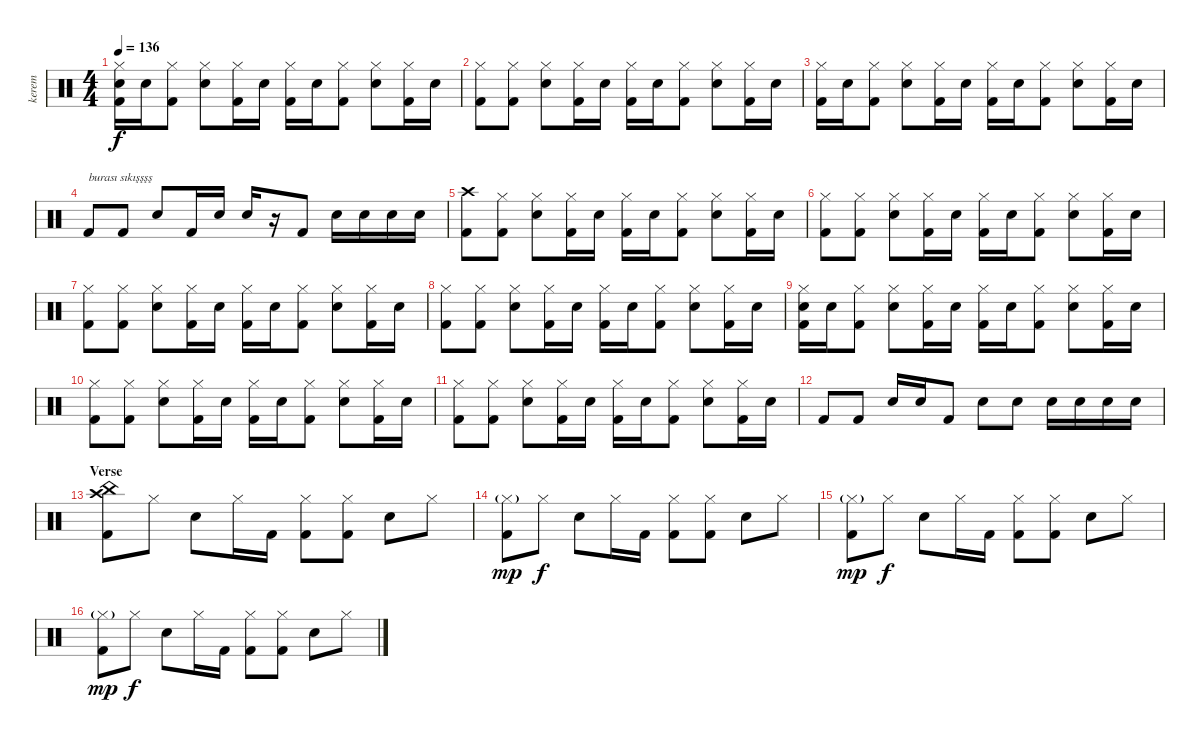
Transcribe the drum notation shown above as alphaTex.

\track ("kerem" "kerem") {instrument percussion}
\staff {score}
\articulation defaults
\ts (4 4)
\tempo 136
\clef neutral
\ks c
("Kick (hit) 2" "Electric Snare (hit)" "Hi-Hat (closed)").16{dy f} "Electric Snare (hit)".16 ("Kick (hit) 2" "Hi-Hat (closed)").8 ("Electric Snare (hit)" "Hi-Hat (closed)").8 ("Kick (hit) 2" "Hi-Hat (closed)").16 "Electric Snare (hit)".16 ("Kick (hit) 2" "Hi-Hat (closed)").16 "Electric Snare (hit)".16 ("Kick (hit) 2" "Hi-Hat (closed)").8 ("Electric Snare (hit)" "Hi-Hat (closed)").8 ("Kick (hit) 2" "Hi-Hat (closed)").16 "Electric Snare (hit)".16 |
("Kick (hit) 2" "Hi-Hat (closed)").8 ("Kick (hit) 2" "Hi-Hat (closed)").8 ("Electric Snare (hit)" "Hi-Hat (closed)").8 ("Kick (hit) 2" "Hi-Hat (closed)").16 "Electric Snare (hit)".16 ("Kick (hit) 2" "Hi-Hat (closed)").16 "Electric Snare (hit)".16 ("Kick (hit) 2" "Hi-Hat (closed)").8 ("Electric Snare (hit)" "Hi-Hat (closed)").8 ("Kick (hit) 2" "Hi-Hat (closed)").16 "Electric Snare (hit)".16 |
("Kick (hit) 2" "Hi-Hat (closed)").16 "Electric Snare (hit)".16 ("Kick (hit) 2" "Hi-Hat (closed)").8 ("Electric Snare (hit)" "Hi-Hat (closed)").8 ("Kick (hit) 2" "Hi-Hat (closed)").16 "Electric Snare (hit)".16 ("Kick (hit) 2" "Hi-Hat (closed)").16 "Electric Snare (hit)".16 ("Kick (hit) 2" "Hi-Hat (closed)").8 ("Electric Snare (hit)" "Hi-Hat (closed)").8 ("Kick (hit) 2" "Hi-Hat (closed)").16 "Electric Snare (hit)".16 |
"Kick (hit) 2".8{txt "burası sıkışşşş"} "Kick (hit) 2".8 "Electric Snare (hit)".8 "Kick (hit) 2".16 "Electric Snare (hit)".16 "Electric Snare (hit)".16 r.16 "Kick (hit) 2".8 "Electric Snare (hit)".16 "Electric Snare (hit)".16 "Electric Snare (hit)".16 "Electric Snare (hit)".16 |
("Kick (hit) 2" "Crash high (hit)").8 ("Kick (hit) 2" "Hi-Hat (closed)").8 ("Electric Snare (hit)" "Hi-Hat (closed)").8 ("Kick (hit) 2" "Hi-Hat (closed)").16 "Electric Snare (hit)".16 ("Kick (hit) 2" "Hi-Hat (closed)").16 "Electric Snare (hit)".16 ("Kick (hit) 2" "Hi-Hat (closed)").8 ("Electric Snare (hit)" "Hi-Hat (closed)").8 ("Kick (hit) 2" "Hi-Hat (closed)").16 "Electric Snare (hit)".16 |
("Kick (hit) 2" "Hi-Hat (closed)").8 ("Kick (hit) 2" "Hi-Hat (closed)").8 ("Electric Snare (hit)" "Hi-Hat (closed)").8 ("Kick (hit) 2" "Hi-Hat (closed)").16 "Electric Snare (hit)".16 ("Kick (hit) 2" "Hi-Hat (closed)").16 "Electric Snare (hit)".16 ("Kick (hit) 2" "Hi-Hat (closed)").8 ("Electric Snare (hit)" "Hi-Hat (closed)").8 ("Kick (hit) 2" "Hi-Hat (closed)").16 "Electric Snare (hit)".16 |
("Kick (hit) 2" "Hi-Hat (closed)").8 ("Kick (hit) 2" "Hi-Hat (closed)").8 ("Electric Snare (hit)" "Hi-Hat (closed)").8 ("Kick (hit) 2" "Hi-Hat (closed)").16 "Electric Snare (hit)".16 ("Kick (hit) 2" "Hi-Hat (closed)").16 "Electric Snare (hit)".16 ("Kick (hit) 2" "Hi-Hat (closed)").8 ("Electric Snare (hit)" "Hi-Hat (closed)").8 ("Kick (hit) 2" "Hi-Hat (closed)").16 "Electric Snare (hit)".16 |
("Kick (hit) 2" "Hi-Hat (closed)").8 ("Kick (hit) 2" "Hi-Hat (closed)").8 ("Electric Snare (hit)" "Hi-Hat (closed)").8 ("Kick (hit) 2" "Hi-Hat (closed)").16 "Electric Snare (hit)".16 ("Kick (hit) 2" "Hi-Hat (closed)").16 "Electric Snare (hit)".16 ("Kick (hit) 2" "Hi-Hat (closed)").8 ("Electric Snare (hit)" "Hi-Hat (closed)").8 ("Kick (hit) 2" "Hi-Hat (closed)").16 "Electric Snare (hit)".16 |
("Kick (hit) 2" "Electric Snare (hit)" "Hi-Hat (closed)").16 "Electric Snare (hit)".16 ("Kick (hit) 2" "Hi-Hat (closed)").8 ("Electric Snare (hit)" "Hi-Hat (closed)").8 ("Kick (hit) 2" "Hi-Hat (closed)").16 "Electric Snare (hit)".16 ("Kick (hit) 2" "Hi-Hat (closed)").16 "Electric Snare (hit)".16 ("Kick (hit) 2" "Hi-Hat (closed)").8 ("Electric Snare (hit)" "Hi-Hat (closed)").8 ("Kick (hit) 2" "Hi-Hat (closed)").16 "Electric Snare (hit)".16 |
("Kick (hit) 2" "Hi-Hat (closed)").8 ("Kick (hit) 2" "Hi-Hat (closed)").8 ("Electric Snare (hit)" "Hi-Hat (closed)").8 ("Kick (hit) 2" "Hi-Hat (closed)").16 "Electric Snare (hit)".16 ("Kick (hit) 2" "Hi-Hat (closed)").16 "Electric Snare (hit)".16 ("Kick (hit) 2" "Hi-Hat (closed)").8 ("Electric Snare (hit)" "Hi-Hat (closed)").8 ("Kick (hit) 2" "Hi-Hat (closed)").16 "Electric Snare (hit)".16 |
("Kick (hit) 2" "Hi-Hat (closed)").8 ("Kick (hit) 2" "Hi-Hat (closed)").8 ("Electric Snare (hit)" "Hi-Hat (closed)").8 ("Kick (hit) 2" "Hi-Hat (closed)").16 "Electric Snare (hit)".16 ("Kick (hit) 2" "Hi-Hat (closed)").16 "Electric Snare (hit)".16 ("Kick (hit) 2" "Hi-Hat (closed)").8 ("Electric Snare (hit)" "Hi-Hat (closed)").8 ("Kick (hit) 2" "Hi-Hat (closed)").16 "Electric Snare (hit)".16 |
"Kick (hit) 2".8 "Kick (hit) 2".8 "Electric Snare (hit)".16 "Electric Snare (hit)".16 "Kick (hit) 2".8 "Electric Snare (hit)".8 "Electric Snare (hit)".8 "Electric Snare (hit)".16 "Electric Snare (hit)".16 "Electric Snare (hit)".16 "Electric Snare (hit)".16 |
\section ("" "Verse")
("China (hit)" "Kick (hit) 2" "Crash high (hit)").8 "Hi-Hat (closed)".8 "Electric Snare (hit)".8 "Hi-Hat (closed)".16 "Kick (hit) 2".16 ("Kick (hit) 2" "Hi-Hat (closed)").8 ("Kick (hit) 2" "Hi-Hat (closed)").8 "Electric Snare (hit)".8 "Hi-Hat (closed)".8 |
("Kick (hit) 2" "Hi-Hat (closed)"{g}).8{dy mp} "Hi-Hat (closed)".8{dy f} "Electric Snare (hit)".8 "Hi-Hat (closed)".16 "Kick (hit) 2".16 ("Kick (hit) 2" "Hi-Hat (closed)").8 ("Kick (hit) 2" "Hi-Hat (closed)").8 "Electric Snare (hit)".8 "Hi-Hat (closed)".8 |
("Kick (hit) 2" "Hi-Hat (closed)"{g}).8{dy mp} "Hi-Hat (closed)".8{dy f} "Electric Snare (hit)".8 "Hi-Hat (closed)".16 "Kick (hit) 2".16 ("Kick (hit) 2" "Hi-Hat (closed)").8 ("Kick (hit) 2" "Hi-Hat (closed)").8 "Electric Snare (hit)".8 "Hi-Hat (closed)".8 |
("Kick (hit) 2" "Hi-Hat (closed)"{g}).8{dy mp} "Hi-Hat (closed)".8{dy f} "Electric Snare (hit)".8 "Hi-Hat (closed)".16 "Kick (hit) 2".16 ("Kick (hit) 2" "Hi-Hat (closed)").8 ("Kick (hit) 2" "Hi-Hat (closed)").8 "Electric Snare (hit)".8 "Hi-Hat (closed)".8
